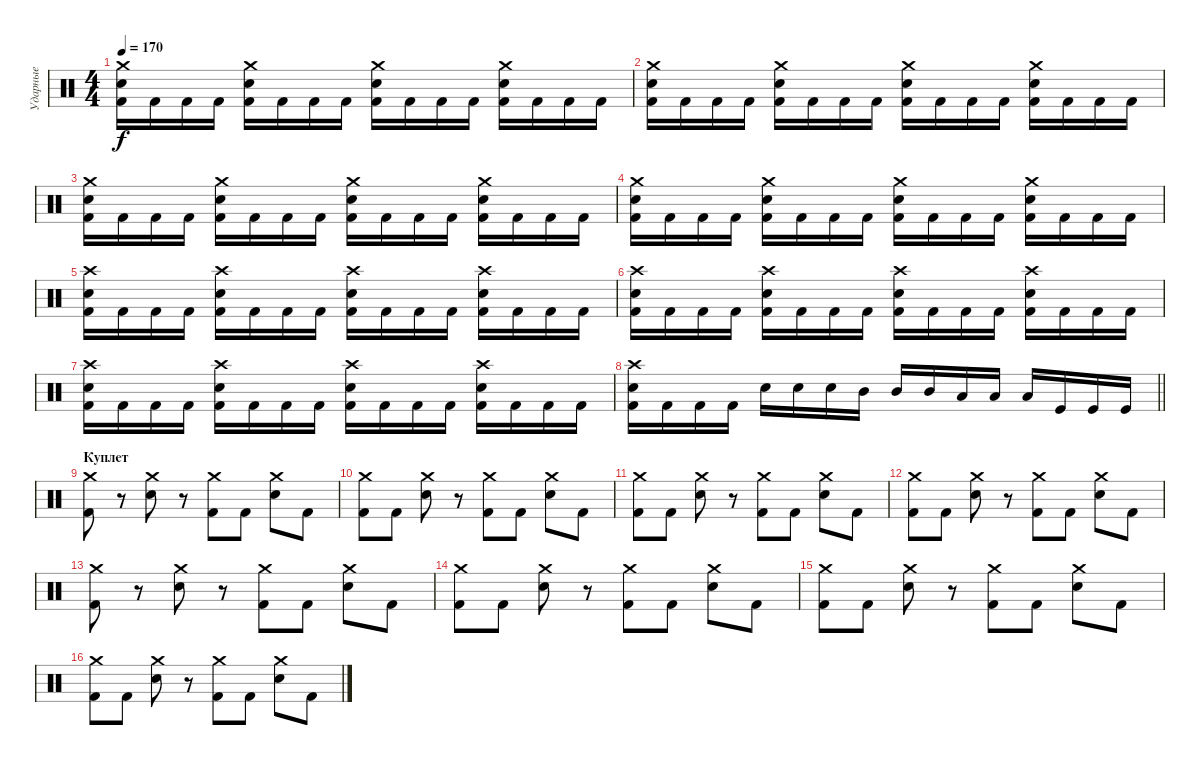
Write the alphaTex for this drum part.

\track ("Ударные" "Ударные") {instrument percussion}
\staff {score}
\articulation defaults
\ts (4 4)
\tempo 170
\clef neutral
\ks c
("Crash medium (hit)" "Electric Snare (hit)" "Kick (hit) 2").16{dy f} "Kick (hit) 2".16 "Kick (hit) 2".16 "Kick (hit) 2".16 ("Crash medium (hit)" "Electric Snare (hit)" "Kick (hit) 2").16 "Kick (hit) 2".16 "Kick (hit) 2".16 "Kick (hit) 2".16 ("Crash medium (hit)" "Electric Snare (hit)" "Kick (hit) 2").16 "Kick (hit) 2".16 "Kick (hit) 2".16 "Kick (hit) 2".16 ("Crash medium (hit)" "Electric Snare (hit)" "Kick (hit) 2").16 "Kick (hit) 2".16 "Kick (hit) 2".16 "Kick (hit) 2".16 |
("Crash medium (hit)" "Electric Snare (hit)" "Kick (hit) 2").16 "Kick (hit) 2".16 "Kick (hit) 2".16 "Kick (hit) 2".16 ("Crash medium (hit)" "Electric Snare (hit)" "Kick (hit) 2").16 "Kick (hit) 2".16 "Kick (hit) 2".16 "Kick (hit) 2".16 ("Crash medium (hit)" "Electric Snare (hit)" "Kick (hit) 2").16 "Kick (hit) 2".16 "Kick (hit) 2".16 "Kick (hit) 2".16 ("Crash medium (hit)" "Electric Snare (hit)" "Kick (hit) 2").16 "Kick (hit) 2".16 "Kick (hit) 2".16 "Kick (hit) 2".16 |
("Crash medium (hit)" "Electric Snare (hit)" "Kick (hit) 2").16 "Kick (hit) 2".16 "Kick (hit) 2".16 "Kick (hit) 2".16 ("Crash medium (hit)" "Electric Snare (hit)" "Kick (hit) 2").16 "Kick (hit) 2".16 "Kick (hit) 2".16 "Kick (hit) 2".16 ("Crash medium (hit)" "Electric Snare (hit)" "Kick (hit) 2").16 "Kick (hit) 2".16 "Kick (hit) 2".16 "Kick (hit) 2".16 ("Crash medium (hit)" "Electric Snare (hit)" "Kick (hit) 2").16 "Kick (hit) 2".16 "Kick (hit) 2".16 "Kick (hit) 2".16 |
("Crash medium (hit)" "Electric Snare (hit)" "Kick (hit) 2").16 "Kick (hit) 2".16 "Kick (hit) 2".16 "Kick (hit) 2".16 ("Crash medium (hit)" "Electric Snare (hit)" "Kick (hit) 2").16 "Kick (hit) 2".16 "Kick (hit) 2".16 "Kick (hit) 2".16 ("Crash medium (hit)" "Electric Snare (hit)" "Kick (hit) 2").16 "Kick (hit) 2".16 "Kick (hit) 2".16 "Kick (hit) 2".16 ("Crash medium (hit)" "Electric Snare (hit)" "Kick (hit) 2").16 "Kick (hit) 2".16 "Kick (hit) 2".16 "Kick (hit) 2".16 |
("Crash high (hit)" "Electric Snare (hit)" "Kick (hit) 2").16 "Kick (hit) 2".16 "Kick (hit) 2".16 "Kick (hit) 2".16 ("Crash high (hit)" "Electric Snare (hit)" "Kick (hit) 2").16 "Kick (hit) 2".16 "Kick (hit) 2".16 "Kick (hit) 2".16 ("Crash high (hit)" "Electric Snare (hit)" "Kick (hit) 2").16 "Kick (hit) 2".16 "Kick (hit) 2".16 "Kick (hit) 2".16 ("Crash high (hit)" "Electric Snare (hit)" "Kick (hit) 2").16 "Kick (hit) 2".16 "Kick (hit) 2".16 "Kick (hit) 2".16 |
("Crash high (hit)" "Electric Snare (hit)" "Kick (hit) 2").16 "Kick (hit) 2".16 "Kick (hit) 2".16 "Kick (hit) 2".16 ("Crash high (hit)" "Electric Snare (hit)" "Kick (hit) 2").16 "Kick (hit) 2".16 "Kick (hit) 2".16 "Kick (hit) 2".16 ("Crash high (hit)" "Electric Snare (hit)" "Kick (hit) 2").16 "Kick (hit) 2".16 "Kick (hit) 2".16 "Kick (hit) 2".16 ("Crash high (hit)" "Electric Snare (hit)" "Kick (hit) 2").16 "Kick (hit) 2".16 "Kick (hit) 2".16 "Kick (hit) 2".16 |
("Crash high (hit)" "Electric Snare (hit)" "Kick (hit) 2").16 "Kick (hit) 2".16 "Kick (hit) 2".16 "Kick (hit) 2".16 ("Crash high (hit)" "Electric Snare (hit)" "Kick (hit) 2").16 "Kick (hit) 2".16 "Kick (hit) 2".16 "Kick (hit) 2".16 ("Crash high (hit)" "Electric Snare (hit)" "Kick (hit) 2").16 "Kick (hit) 2".16 "Kick (hit) 2".16 "Kick (hit) 2".16 ("Crash high (hit)" "Electric Snare (hit)" "Kick (hit) 2").16 "Kick (hit) 2".16 "Kick (hit) 2".16 "Kick (hit) 2".16 |
\barLineRight lightlight
("Crash high (hit)" "Electric Snare (hit)" "Kick (hit) 2").16 "Kick (hit) 2".16 "Kick (hit) 2".16 "Kick (hit) 2".16 "Electric Snare (hit)".16 "Electric Snare (hit)".16 "Electric Snare (hit)".16 "Mid Tom (hit)".16 "Mid Tom (hit)".16 "Mid Tom (hit)".16 "Low Tom (hit)".16 "Low Tom (hit)".16 "Low Tom (hit)".16 "Kick (hit)".16 "Kick (hit)".16 "Kick (hit)".16 |
\section ("" "Куплет")
("Crash medium (hit)" "Kick (hit) 2").8 r.8 ("Crash medium (hit)" "Electric Snare (hit)").8 r.8 ("Crash medium (hit)" "Kick (hit) 2").8 "Kick (hit) 2".8 ("Crash medium (hit)" "Electric Snare (hit)").8 "Kick (hit) 2".8 |
("Crash medium (hit)" "Kick (hit) 2").8 "Kick (hit) 2".8 ("Crash medium (hit)" "Electric Snare (hit)").8 r.8 ("Crash medium (hit)" "Kick (hit) 2").8 "Kick (hit) 2".8 ("Crash medium (hit)" "Electric Snare (hit)").8 "Kick (hit) 2".8 |
("Crash medium (hit)" "Kick (hit) 2").8 "Kick (hit) 2".8 ("Crash medium (hit)" "Electric Snare (hit)").8 r.8 ("Crash medium (hit)" "Kick (hit) 2").8 "Kick (hit) 2".8 ("Crash medium (hit)" "Electric Snare (hit)").8 "Kick (hit) 2".8 |
("Crash medium (hit)" "Kick (hit) 2").8 "Kick (hit) 2".8 ("Crash medium (hit)" "Electric Snare (hit)").8 r.8 ("Crash medium (hit)" "Kick (hit) 2").8 "Kick (hit) 2".8 ("Crash medium (hit)" "Electric Snare (hit)").8 "Kick (hit) 2".8 |
("Crash medium (hit)" "Kick (hit) 2").8 r.8 ("Crash medium (hit)" "Electric Snare (hit)").8 r.8 ("Crash medium (hit)" "Kick (hit) 2").8 "Kick (hit) 2".8 ("Crash medium (hit)" "Electric Snare (hit)").8 "Kick (hit) 2".8 |
("Crash medium (hit)" "Kick (hit) 2").8 "Kick (hit) 2".8 ("Crash medium (hit)" "Electric Snare (hit)").8 r.8 ("Crash medium (hit)" "Kick (hit) 2").8 "Kick (hit) 2".8 ("Crash medium (hit)" "Electric Snare (hit)").8 "Kick (hit) 2".8 |
("Crash medium (hit)" "Kick (hit) 2").8 "Kick (hit) 2".8 ("Crash medium (hit)" "Electric Snare (hit)").8 r.8 ("Crash medium (hit)" "Kick (hit) 2").8 "Kick (hit) 2".8 ("Crash medium (hit)" "Electric Snare (hit)").8 "Kick (hit) 2".8 |
("Crash medium (hit)" "Kick (hit) 2").8 "Kick (hit) 2".8 ("Crash medium (hit)" "Electric Snare (hit)").8 r.8 ("Crash medium (hit)" "Kick (hit) 2").8 "Kick (hit) 2".8 ("Crash medium (hit)" "Electric Snare (hit)").8 "Kick (hit) 2".8
